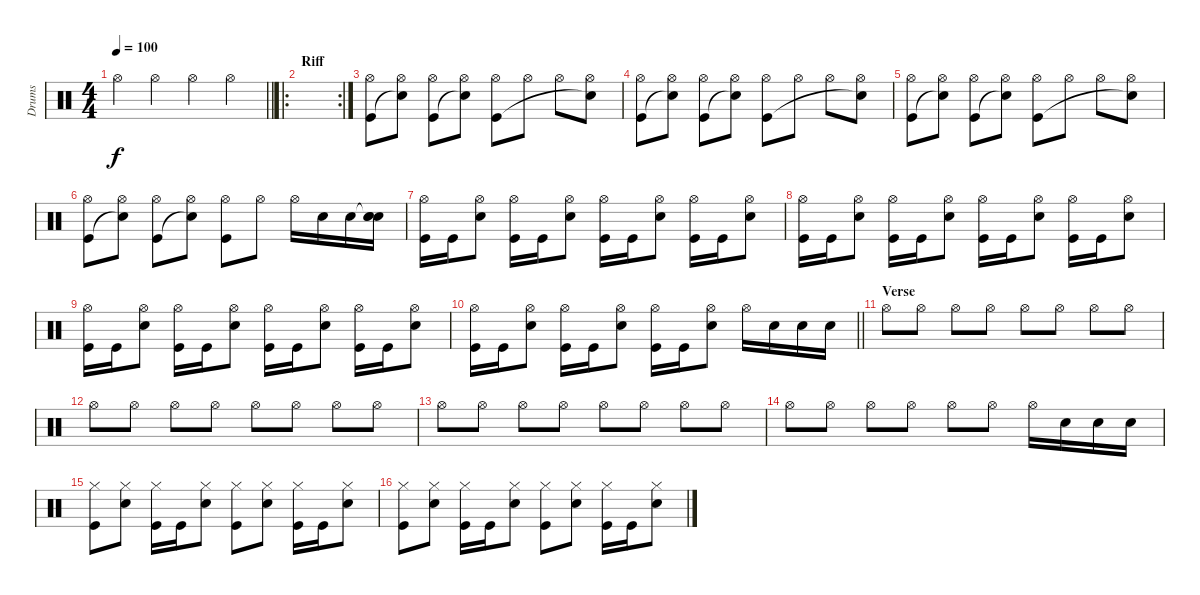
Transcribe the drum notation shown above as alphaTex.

\track ("Drums" "Drums") {instrument percussion}
\staff {score}
\articulation defaults
\ts (4 4)
\tempo 100
\clef neutral
\barLineRight lightlight
\ks c "Hi-Hat (open)".4{dy f} "Hi-Hat (open)".4 "Hi-Hat (open)".4 "Hi-Hat (open)".4
|
\ro
\rc 2
\section ("" "Riff")
|
("Hi-Hat (open)" "Kick (hit)").8 ("Hi-Hat (open)" "Snare (hit)"{t}).8 ("Hi-Hat (open)" "Kick (hit)").8 ("Hi-Hat (open)" "Snare (hit)"{t}).8 ("Hi-Hat (open)" "Kick (hit)").8 "Hi-Hat (open)".8 "Hi-Hat (open)".8 ("Hi-Hat (open)" "Snare (hit)"{t}).8 |
("Hi-Hat (open)" "Kick (hit)").8 ("Hi-Hat (open)" "Snare (hit)"{t}).8 ("Hi-Hat (open)" "Kick (hit)").8 ("Hi-Hat (open)" "Snare (hit)"{t}).8 ("Hi-Hat (open)" "Kick (hit)").8 "Hi-Hat (open)".8 "Hi-Hat (open)".8 ("Hi-Hat (open)" "Snare (hit)"{t}).8 |
("Hi-Hat (open)" "Kick (hit)").8 ("Hi-Hat (open)" "Snare (hit)"{t}).8 ("Hi-Hat (open)" "Kick (hit)").8 ("Hi-Hat (open)" "Snare (hit)"{t}).8 ("Hi-Hat (open)" "Kick (hit)").8 "Hi-Hat (open)".8 "Hi-Hat (open)".8 ("Hi-Hat (open)" "Snare (hit)"{t}).8 |
("Hi-Hat (open)" "Kick (hit)").8 ("Hi-Hat (open)" "Snare (hit)"{t}).8 ("Hi-Hat (open)" "Kick (hit)").8 ("Hi-Hat (open)" "Snare (hit)"{t}).8 ("Hi-Hat (open)" "Kick (hit)").8 "Hi-Hat (open)".8 "Hi-Hat (open)".16 "Snare (hit) 2".16 "Snare (hit) 2".16 ("Snare (hit)"{t} "Snare (hit) 2" "Snare (hit)").16 |
("Hi-Hat (open)" "Kick (hit)").16 "Kick (hit)".16 ("Hi-Hat (open)" "Snare (hit) 2").8 ("Hi-Hat (open)" "Kick (hit)").16 "Kick (hit)".16 ("Hi-Hat (open)" "Snare (hit) 2").8 ("Hi-Hat (open)" "Kick (hit)").16 "Kick (hit)".16 ("Hi-Hat (open)" "Snare (hit) 2").8 ("Hi-Hat (open)" "Kick (hit)").16 "Kick (hit)".16 ("Hi-Hat (open)" "Snare (hit) 2").8 |
("Hi-Hat (open)" "Kick (hit)").16 "Kick (hit)".16 ("Hi-Hat (open)" "Snare (hit) 2").8 ("Hi-Hat (open)" "Kick (hit)").16 "Kick (hit)".16 ("Hi-Hat (open)" "Snare (hit) 2").8 ("Hi-Hat (open)" "Kick (hit)").16 "Kick (hit)".16 ("Hi-Hat (open)" "Snare (hit) 2").8 ("Hi-Hat (open)" "Kick (hit)").16 "Kick (hit)".16 ("Hi-Hat (open)" "Snare (hit) 2").8 |
("Hi-Hat (open)" "Kick (hit)").16 "Kick (hit)".16 ("Hi-Hat (open)" "Snare (hit) 2").8 ("Hi-Hat (open)" "Kick (hit)").16 "Kick (hit)".16 ("Hi-Hat (open)" "Snare (hit) 2").8 ("Hi-Hat (open)" "Kick (hit)").16 "Kick (hit)".16 ("Hi-Hat (open)" "Snare (hit) 2").8 ("Hi-Hat (open)" "Kick (hit)").16 "Kick (hit)".16 ("Hi-Hat (open)" "Snare (hit) 2").8 |
\barLineRight lightlight
("Hi-Hat (open)" "Kick (hit)").16 "Kick (hit)".16 ("Hi-Hat (open)" "Snare (hit) 2").8 ("Hi-Hat (open)" "Kick (hit)").16 "Kick (hit)".16 ("Hi-Hat (open)" "Snare (hit) 2").8 ("Hi-Hat (open)" "Kick (hit)").16 "Kick (hit)".16 ("Hi-Hat (open)" "Snare (hit) 2").8 "Hi-Hat (open)".16 "Snare (hit) 2".16 "Snare (hit) 2".16 "Snare (hit) 2".16 |
\section ("" "Verse")
"Hi-Hat (open)".8 "Hi-Hat (open)".8 "Hi-Hat (open)".8 "Hi-Hat (open)".8 "Hi-Hat (open)".8 "Hi-Hat (open)".8 "Hi-Hat (open)".8 "Hi-Hat (open)".8 |
"Hi-Hat (open)".8 "Hi-Hat (open)".8 "Hi-Hat (open)".8 "Hi-Hat (open)".8 "Hi-Hat (open)".8 "Hi-Hat (open)".8 "Hi-Hat (open)".8 "Hi-Hat (open)".8 |
"Hi-Hat (open)".8 "Hi-Hat (open)".8 "Hi-Hat (open)".8 "Hi-Hat (open)".8 "Hi-Hat (open)".8 "Hi-Hat (open)".8 "Hi-Hat (open)".8 "Hi-Hat (open)".8 |
"Hi-Hat (open)".8 "Hi-Hat (open)".8 "Hi-Hat (open)".8 "Hi-Hat (open)".8 "Hi-Hat (open)".8 "Hi-Hat (open)".8 "Hi-Hat (open)".16 "Snare (hit) 2".16 "Snare (hit) 2".16 "Snare (hit) 2".16 |
("Hi-Hat (closed)" "Kick (hit)").8 ("Hi-Hat (closed)" "Snare (hit) 2").8 ("Hi-Hat (closed)" "Kick (hit)").16 "Kick (hit)".16 ("Hi-Hat (closed)" "Snare (hit) 2").8 ("Hi-Hat (closed)" "Kick (hit)").8 ("Hi-Hat (closed)" "Snare (hit) 2").8 ("Hi-Hat (closed)" "Kick (hit)").16 "Kick (hit)".16 ("Hi-Hat (closed)" "Snare (hit) 2").8 |
("Hi-Hat (closed)" "Kick (hit)").8 ("Hi-Hat (closed)" "Snare (hit) 2").8 ("Hi-Hat (closed)" "Kick (hit)").16 "Kick (hit)".16 ("Hi-Hat (closed)" "Snare (hit) 2").8 ("Hi-Hat (closed)" "Kick (hit)").8 ("Hi-Hat (closed)" "Snare (hit) 2").8 ("Hi-Hat (closed)" "Kick (hit)").16 "Kick (hit)".16 ("Hi-Hat (closed)" "Snare (hit) 2").8
